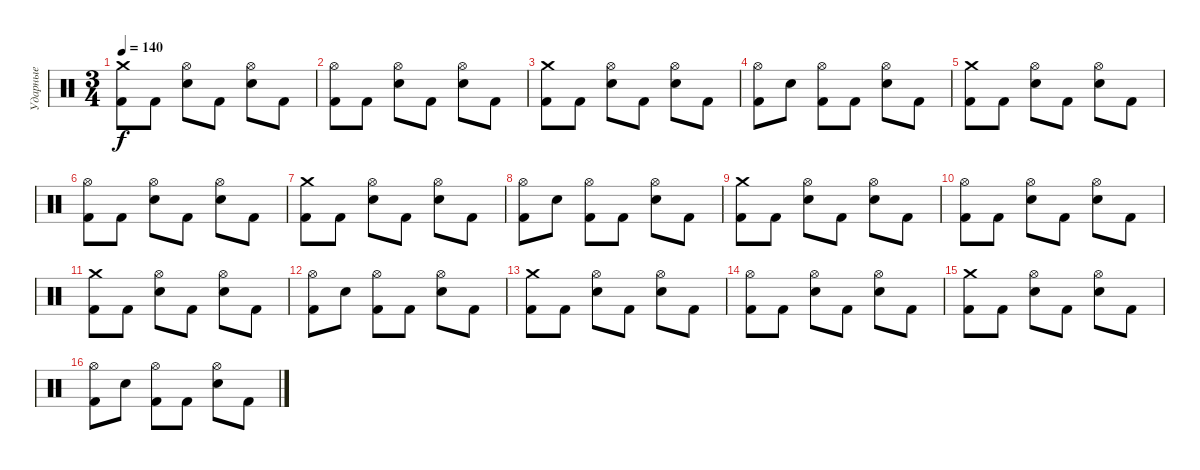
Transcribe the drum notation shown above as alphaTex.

\track ("Ударные" "Ударные") {instrument percussion}
\staff {score}
\articulation defaults
\ts (3 4)
\tempo 140
\clef neutral
\ks c
("Crash medium (hit)" "Kick (hit) 2").8{dy f} "Kick (hit) 2".8 ("Hi-Hat (open)" "Electric Snare (hit)").8 "Kick (hit) 2".8 ("Hi-Hat (open)" "Electric Snare (hit)").8 "Kick (hit) 2".8 |
("Hi-Hat (open)" "Kick (hit) 2").8 "Kick (hit) 2".8 ("Hi-Hat (open)" "Electric Snare (hit)").8 "Kick (hit) 2".8 ("Hi-Hat (open)" "Electric Snare (hit)").8 "Kick (hit) 2".8 |
("Crash medium (hit)" "Kick (hit) 2").8 "Kick (hit) 2".8 ("Hi-Hat (open)" "Electric Snare (hit)").8 "Kick (hit) 2".8 ("Hi-Hat (open)" "Electric Snare (hit)").8 "Kick (hit) 2".8 |
("Hi-Hat (open)" "Kick (hit) 2").8 "Electric Snare (hit)".8 ("Hi-Hat (open)" "Kick (hit) 2").8 "Kick (hit) 2".8 ("Hi-Hat (open)" "Electric Snare (hit)").8 "Kick (hit) 2".8 |
("Crash medium (hit)" "Kick (hit) 2").8 "Kick (hit) 2".8 ("Hi-Hat (open)" "Electric Snare (hit)").8 "Kick (hit) 2".8 ("Hi-Hat (open)" "Electric Snare (hit)").8 "Kick (hit) 2".8 |
("Hi-Hat (open)" "Kick (hit) 2").8 "Kick (hit) 2".8 ("Hi-Hat (open)" "Electric Snare (hit)").8 "Kick (hit) 2".8 ("Hi-Hat (open)" "Electric Snare (hit)").8 "Kick (hit) 2".8 |
("Crash medium (hit)" "Kick (hit) 2").8 "Kick (hit) 2".8 ("Hi-Hat (open)" "Electric Snare (hit)").8 "Kick (hit) 2".8 ("Hi-Hat (open)" "Electric Snare (hit)").8 "Kick (hit) 2".8 |
("Hi-Hat (open)" "Kick (hit) 2").8 "Electric Snare (hit)".8 ("Hi-Hat (open)" "Kick (hit) 2").8 "Kick (hit) 2".8 ("Hi-Hat (open)" "Electric Snare (hit)").8 "Kick (hit) 2".8 |
("Crash medium (hit)" "Kick (hit) 2").8 "Kick (hit) 2".8 ("Hi-Hat (open)" "Electric Snare (hit)").8 "Kick (hit) 2".8 ("Hi-Hat (open)" "Electric Snare (hit)").8 "Kick (hit) 2".8 |
("Hi-Hat (open)" "Kick (hit) 2").8 "Kick (hit) 2".8 ("Hi-Hat (open)" "Electric Snare (hit)").8 "Kick (hit) 2".8 ("Hi-Hat (open)" "Electric Snare (hit)").8 "Kick (hit) 2".8 |
("Crash medium (hit)" "Kick (hit) 2").8 "Kick (hit) 2".8 ("Hi-Hat (open)" "Electric Snare (hit)").8 "Kick (hit) 2".8 ("Hi-Hat (open)" "Electric Snare (hit)").8 "Kick (hit) 2".8 |
("Hi-Hat (open)" "Kick (hit) 2").8 "Electric Snare (hit)".8 ("Hi-Hat (open)" "Kick (hit) 2").8 "Kick (hit) 2".8 ("Hi-Hat (open)" "Electric Snare (hit)").8 "Kick (hit) 2".8 |
("Crash medium (hit)" "Kick (hit) 2").8 "Kick (hit) 2".8 ("Hi-Hat (open)" "Electric Snare (hit)").8 "Kick (hit) 2".8 ("Hi-Hat (open)" "Electric Snare (hit)").8 "Kick (hit) 2".8 |
("Hi-Hat (open)" "Kick (hit) 2").8 "Kick (hit) 2".8 ("Hi-Hat (open)" "Electric Snare (hit)").8 "Kick (hit) 2".8 ("Hi-Hat (open)" "Electric Snare (hit)").8 "Kick (hit) 2".8 |
("Crash medium (hit)" "Kick (hit) 2").8 "Kick (hit) 2".8 ("Hi-Hat (open)" "Electric Snare (hit)").8 "Kick (hit) 2".8 ("Hi-Hat (open)" "Electric Snare (hit)").8 "Kick (hit) 2".8 |
("Hi-Hat (open)" "Kick (hit) 2").8 "Electric Snare (hit)".8 ("Hi-Hat (open)" "Kick (hit) 2").8 "Kick (hit) 2".8 ("Hi-Hat (open)" "Electric Snare (hit)").8 "Kick (hit) 2".8
